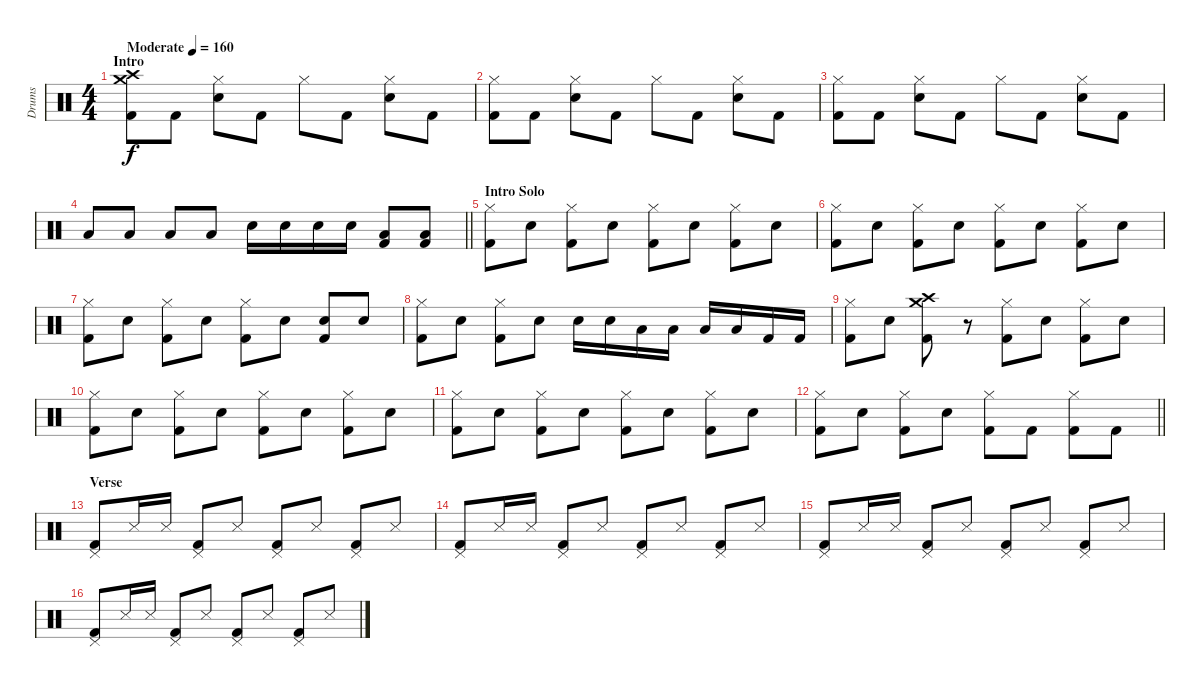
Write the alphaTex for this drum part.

\track ("Drums" "Drums") {instrument percussion}
\staff {score}
\articulation defaults
\ts (4 4)
\section ("" "Intro")
\tempo (160 "Moderate")
\clef neutral
\ks c
("Crash medium (hit)" "Crash high (hit)" "Kick (hit) 2").8{dy f} "Kick (hit) 2".8 ("Hi-Hat (closed)" "Snare (hit) 2").8 "Kick (hit) 2".8 "Hi-Hat (closed)".8 "Kick (hit) 2".8 ("Hi-Hat (closed)" "Snare (hit) 2").8 "Kick (hit) 2".8 |
("Hi-Hat (closed)" "Kick (hit) 2").8 "Kick (hit) 2".8 ("Hi-Hat (closed)" "Snare (hit) 2").8 "Kick (hit) 2".8 "Hi-Hat (closed)".8 "Kick (hit) 2".8 ("Hi-Hat (closed)" "Snare (hit) 2").8 "Kick (hit) 2".8 |
("Hi-Hat (closed)" "Kick (hit) 2").8 "Kick (hit) 2".8 ("Hi-Hat (closed)" "Snare (hit) 2").8 "Kick (hit) 2".8 "Hi-Hat (closed)".8 "Kick (hit) 2".8 ("Hi-Hat (closed)" "Snare (hit) 2").8 "Kick (hit) 2".8 |
\barLineRight lightlight "Low Tom (hit)".8 "Low Tom (hit)".8 "Low Floor Tom (hit)".8 "Low Floor Tom (hit)".8 "Snare (hit) 2".16 "Snare (hit) 2".16 "Snare (hit) 2".16 "Snare (hit) 2".16
("Low Floor Tom (hit)" "Kick (hit) 2").8 ("Low Floor Tom (hit)" "Kick (hit) 2").8 |
\section ("" "Intro Solo")
("Hi-Hat (closed)" "Kick (hit) 2").8 "Snare (hit) 2".8 ("Hi-Hat (closed)" "Kick (hit) 2").8 "Snare (hit) 2".8 ("Hi-Hat (closed)" "Kick (hit) 2").8 "Snare (hit) 2".8 ("Hi-Hat (closed)" "Kick (hit) 2").8 "Snare (hit) 2".8 |
("Hi-Hat (closed)" "Kick (hit) 2").8 "Snare (hit) 2".8 ("Hi-Hat (closed)" "Kick (hit) 2").8 "Snare (hit) 2".8 ("Hi-Hat (closed)" "Kick (hit) 2").8 "Snare (hit) 2".8 ("Hi-Hat (closed)" "Kick (hit) 2").8 "Snare (hit) 2".8 |
("Hi-Hat (closed)" "Kick (hit) 2").8 "Snare (hit) 2".8 ("Hi-Hat (closed)" "Kick (hit) 2").8 "Snare (hit) 2".8 ("Hi-Hat (closed)" "Kick (hit) 2").8 "Snare (hit) 2".8 ("Snare (hit) 2" "Kick (hit) 2").8 "Snare (hit) 2".8 |
("Hi-Hat (closed)" "Kick (hit) 2").8 "Snare (hit) 2".8 ("Hi-Hat (closed)" "Kick (hit) 2").8 "Snare (hit) 2".8 "Snare (hit) 2".16 "Snare (hit) 2".16 "Low Tom (hit)".16 "Low Tom (hit)".16 "Low Floor Tom (hit)".16 "Low Floor Tom (hit)".16 "Kick (hit) 2".16 "Kick (hit) 2".16 |
("Hi-Hat (closed)" "Kick (hit) 2").8 "Snare (hit) 2".8 ("Crash high (hit)" "Crash medium (hit)" "Kick (hit) 2").8 r.8 ("Hi-Hat (closed)" "Kick (hit) 2").8 "Snare (hit) 2".8 ("Hi-Hat (closed)" "Kick (hit) 2").8 "Snare (hit) 2".8 |
("Hi-Hat (closed)" "Kick (hit) 2").8 "Snare (hit) 2".8 ("Hi-Hat (closed)" "Kick (hit) 2").8 "Snare (hit) 2".8 ("Hi-Hat (closed)" "Kick (hit) 2").8 "Snare (hit) 2".8 ("Hi-Hat (closed)" "Kick (hit) 2").8 "Snare (hit) 2".8 |
("Hi-Hat (closed)" "Kick (hit) 2").8 "Snare (hit) 2".8 ("Hi-Hat (closed)" "Kick (hit) 2").8 "Snare (hit) 2".8 ("Hi-Hat (closed)" "Kick (hit) 2").8 "Snare (hit) 2".8 ("Hi-Hat (closed)" "Kick (hit) 2").8 "Snare (hit) 2".8 |
\barLineRight lightlight
("Hi-Hat (closed)" "Kick (hit) 2").8 "Snare (hit) 2".8 ("Hi-Hat (closed)" "Kick (hit) 2").8 "Snare (hit) 2".8 ("Hi-Hat (closed)" "Kick (hit) 2").8 "Kick (hit) 2".8 ("Hi-Hat (closed)" "Kick (hit) 2").8 "Kick (hit) 2".8 |
\section ("" "Verse")
("Pedal Hi-Hat (hit)" "Kick (hit) 2").8 "Snare (side stick) 3".16 "Snare (side stick) 3".16 ("Pedal Hi-Hat (hit)" "Kick (hit) 2").8 "Snare (side stick) 3".8 ("Pedal Hi-Hat (hit)" "Kick (hit) 2").8 "Snare (side stick) 3".8 ("Pedal Hi-Hat (hit)" "Kick (hit) 2").8 "Snare (side stick) 3".8 |
("Pedal Hi-Hat (hit)" "Kick (hit) 2").8 "Snare (side stick) 3".16 "Snare (side stick) 3".16 ("Pedal Hi-Hat (hit)" "Kick (hit) 2").8 "Snare (side stick) 3".8 ("Pedal Hi-Hat (hit)" "Kick (hit) 2").8 "Snare (side stick) 3".8 ("Pedal Hi-Hat (hit)" "Kick (hit) 2").8 "Snare (side stick) 3".8 |
("Pedal Hi-Hat (hit)" "Kick (hit) 2").8 "Snare (side stick) 3".16 "Snare (side stick) 3".16 ("Pedal Hi-Hat (hit)" "Kick (hit) 2").8 "Snare (side stick) 3".8 ("Pedal Hi-Hat (hit)" "Kick (hit) 2").8 "Snare (side stick) 3".8 ("Pedal Hi-Hat (hit)" "Kick (hit) 2").8 "Snare (side stick) 3".8 |
("Pedal Hi-Hat (hit)" "Kick (hit) 2").8 "Snare (side stick) 3".16 "Snare (side stick) 3".16 ("Pedal Hi-Hat (hit)" "Kick (hit) 2").8 "Snare (side stick) 3".8 ("Pedal Hi-Hat (hit)" "Kick (hit) 2").8 "Snare (side stick) 3".8 ("Pedal Hi-Hat (hit)" "Kick (hit) 2").8 "Snare (side stick) 3".8
